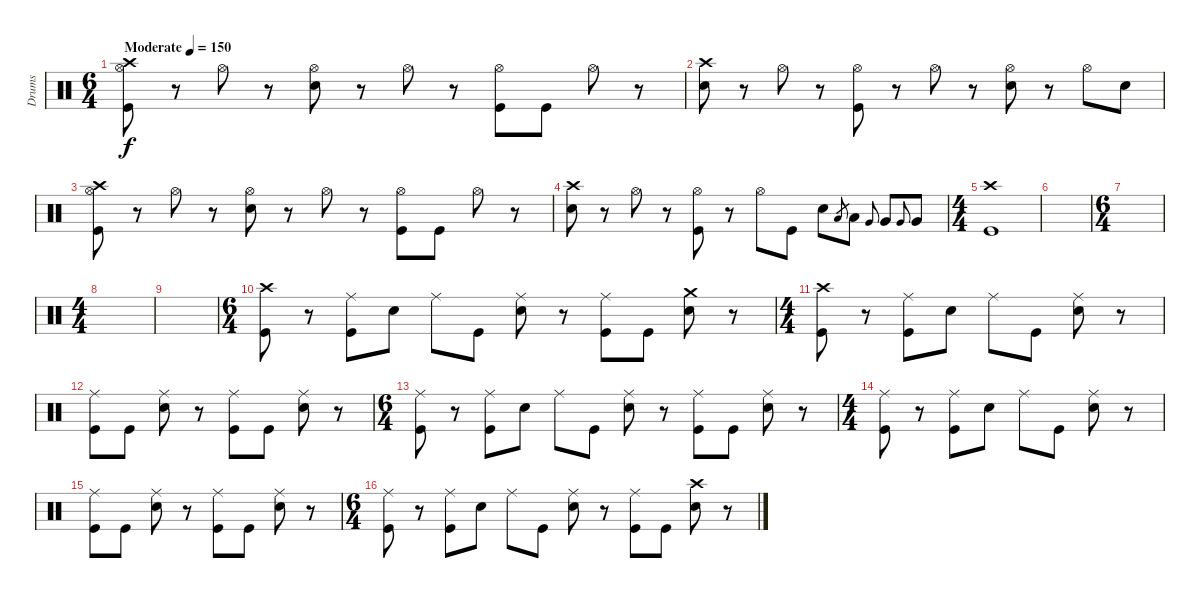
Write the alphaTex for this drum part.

\track ("Drums" "Drums") {instrument percussion}
\staff {score}
\articulation defaults
\ts (6 4)
\tempo (150 "Moderate")
\clef neutral
\ks c
("Crash high (hit)" "Hi-Hat (open)" "Kick (hit)").8{dy f} r.8 "Hi-Hat (open)".8 r.8 ("Hi-Hat (open)" "Electric Snare (hit)").8 r.8 "Hi-Hat (open)".8 r.8 ("Hi-Hat (open)" "Kick (hit)").8 "Kick (hit)".8 "Hi-Hat (open)".8 r.8 |
("Crash high (hit)" "Electric Snare (hit)").8 r.8 "Hi-Hat (open)".8 r.8 ("Hi-Hat (open)" "Kick (hit)").8 r.8 "Hi-Hat (open)".8 r.8 ("Hi-Hat (open)" "Electric Snare (hit)").8 r.8 "Hi-Hat (open)".8 "Electric Snare (hit)".8 |
("Crash high (hit)" "Hi-Hat (open)" "Kick (hit)").8 r.8 "Hi-Hat (open)".8 r.8 ("Hi-Hat (open)" "Electric Snare (hit)").8 r.8 "Hi-Hat (open)".8 r.8 ("Hi-Hat (open)" "Kick (hit)").8 "Kick (hit)".8 "Hi-Hat (open)".8 r.8 |
("Crash high (hit)" "Electric Snare (hit)").8 r.8 "Hi-Hat (open)".8 r.8 ("Hi-Hat (open)" "Kick (hit)").8 r.8 "Hi-Hat (open)".8 "Kick (hit)".8 "Electric Snare (hit)".8 "Low Tom (hit)".8{gr} "Low Tom (hit)".8 "Very Low Tom (hit)".8{gr onbeat} "Very Low Tom (hit)".8 "Very Low Tom (hit)".8{gr onbeat} "Very Low Tom (hit)".8 |
\ts (4 4)
("Crash high (hit)" "Kick (hit)").1 |
|
\ts (6 4)
|
\ts (4 4)
|
|
\ts (6 4)
("Crash high (hit)" "Kick (hit)").8 r.8 ("Ride (middle)" "Kick (hit)").8 "Electric Snare (hit)".8 "Ride (middle)".8 "Kick (hit)".8 ("Ride (middle)" "Electric Snare (hit)").8 r.8 ("Ride (middle)" "Kick (hit)").8 "Kick (hit)".8 ("Crash medium (hit)" "Electric Snare (hit)").8 r.8 |
\ts (4 4)
("Crash high (hit)" "Kick (hit)").8 r.8 ("Ride (middle)" "Kick (hit)").8 "Electric Snare (hit)".8 "Ride (middle)".8 "Kick (hit)".8 ("Ride (middle)" "Electric Snare (hit)").8 r.8 |
("Ride (middle)" "Kick (hit)").8 "Kick (hit)".8 ("Ride (middle)" "Electric Snare (hit)").8 r.8 ("Ride (middle)" "Kick (hit)").8 "Kick (hit)".8 ("Ride (middle)" "Electric Snare (hit)").8 r.8 |
\ts (6 4)
("Ride (middle)" "Kick (hit)").8 r.8 ("Ride (middle)" "Kick (hit)").8 "Electric Snare (hit)".8 "Ride (middle)".8 "Kick (hit)".8 ("Ride (middle)" "Electric Snare (hit)").8 r.8 ("Ride (middle)" "Kick (hit)").8 "Kick (hit)".8 ("Ride (middle)" "Electric Snare (hit)").8 r.8 |
\ts (4 4)
("Ride (middle)" "Kick (hit)").8 r.8 ("Ride (middle)" "Kick (hit)").8 "Electric Snare (hit)".8 "Ride (middle)".8 "Kick (hit)".8 ("Ride (middle)" "Electric Snare (hit)").8 r.8 |
("Ride (middle)" "Kick (hit)").8 "Kick (hit)".8 ("Ride (middle)" "Electric Snare (hit)").8 r.8 ("Ride (middle)" "Kick (hit)").8 "Kick (hit)".8 ("Ride (middle)" "Electric Snare (hit)").8 r.8 |
\ts (6 4)
("Ride (middle)" "Kick (hit)").8 r.8 ("Ride (middle)" "Kick (hit)").8 "Electric Snare (hit)".8 "Ride (middle)".8 "Kick (hit)".8 ("Ride (middle)" "Electric Snare (hit)").8 r.8 ("Ride (middle)" "Kick (hit)").8 "Kick (hit)".8 ("Crash high (hit)" "Electric Snare (hit)").8 r.8
